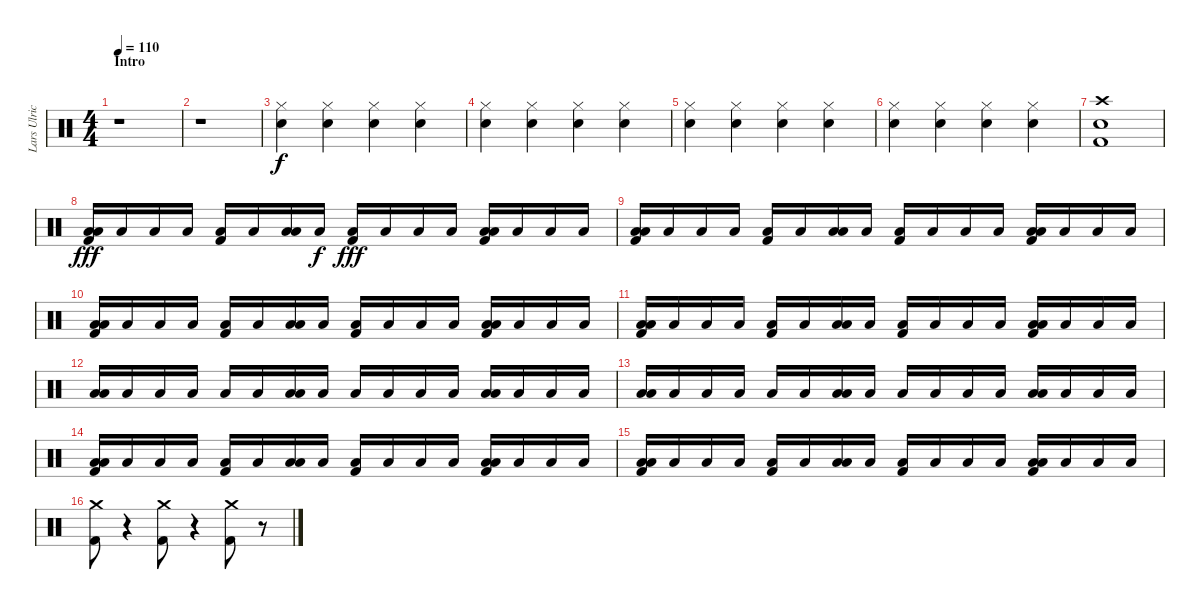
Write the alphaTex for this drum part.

\track ("Lars Ulrich" "Lars Ulric") {instrument percussion}
\staff {score}
\articulation defaults
\ts (4 4)
\section ("" "Intro")
\tempo 110
\clef neutral
\ks c
r.1{dy f} |
r.1 |
("Hi-Hat (closed)" "Electric Snare (hit)").4 ("Hi-Hat (closed)" "Electric Snare (hit)").4 ("Hi-Hat (closed)" "Electric Snare (hit)").4 ("Hi-Hat (closed)" "Electric Snare (hit)").4 |
("Hi-Hat (closed)" "Electric Snare (hit)").4 ("Hi-Hat (closed)" "Electric Snare (hit)").4 ("Hi-Hat (closed)" "Electric Snare (hit)").4 ("Hi-Hat (closed)" "Electric Snare (hit)").4 |
("Hi-Hat (closed)" "Electric Snare (hit)").4 ("Hi-Hat (closed)" "Electric Snare (hit)").4 ("Hi-Hat (closed)" "Electric Snare (hit)").4 ("Hi-Hat (closed)" "Electric Snare (hit)").4 |
("Hi-Hat (closed)" "Electric Snare (hit)").4 ("Hi-Hat (closed)" "Electric Snare (hit)").4 ("Hi-Hat (closed)" "Electric Snare (hit)").4 ("Hi-Hat (closed)" "Electric Snare (hit)").4 |
("Crash high (hit)" "Electric Snare (hit)" "Kick (hit) 2").1 |
("Low Tom (hit)" "Low Floor Tom (hit)" "Kick (hit) 2").16{dy fff} "Low Floor Tom (hit)".16 "Low Floor Tom (hit)".16 "Low Floor Tom (hit)".16 ("Low Floor Tom (hit)" "Kick (hit) 2").16 "Low Floor Tom (hit)".16 ("Low Tom (hit)" "Low Floor Tom (hit)").16 "Low Floor Tom (hit)".16{dy f} ("Low Floor Tom (hit)" "Kick (hit) 2").16{dy fff} "Low Floor Tom (hit)".16 "Low Floor Tom (hit)".16 "Low Floor Tom (hit)".16 ("Low Tom (hit)" "Low Floor Tom (hit)" "Kick (hit) 2").16 "Low Floor Tom (hit)".16 "Low Floor Tom (hit)".16 "Low Floor Tom (hit)".16 |
("Low Tom (hit)" "Low Floor Tom (hit)" "Kick (hit) 2").16 "Low Floor Tom (hit)".16 "Low Floor Tom (hit)".16 "Low Floor Tom (hit)".16 ("Low Floor Tom (hit)" "Kick (hit) 2").16 "Low Floor Tom (hit)".16 ("Low Tom (hit)" "Low Floor Tom (hit)").16 "Low Floor Tom (hit)".16 ("Low Floor Tom (hit)" "Kick (hit) 2").16 "Low Floor Tom (hit)".16 "Low Floor Tom (hit)".16 "Low Floor Tom (hit)".16 ("Low Tom (hit)" "Low Floor Tom (hit)" "Kick (hit) 2").16 "Low Floor Tom (hit)".16 "Low Floor Tom (hit)".16 "Low Floor Tom (hit)".16 |
("Low Tom (hit)" "Low Floor Tom (hit)" "Kick (hit) 2").16 "Low Floor Tom (hit)".16 "Low Floor Tom (hit)".16 "Low Floor Tom (hit)".16 ("Low Floor Tom (hit)" "Kick (hit) 2").16 "Low Floor Tom (hit)".16 ("Low Tom (hit)" "Low Floor Tom (hit)").16 "Low Floor Tom (hit)".16 ("Low Floor Tom (hit)" "Kick (hit) 2").16 "Low Floor Tom (hit)".16 "Low Floor Tom (hit)".16 "Low Floor Tom (hit)".16 ("Low Tom (hit)" "Low Floor Tom (hit)" "Kick (hit) 2").16 "Low Floor Tom (hit)".16 "Low Floor Tom (hit)".16 "Low Floor Tom (hit)".16 |
("Low Tom (hit)" "Low Floor Tom (hit)" "Kick (hit) 2").16 "Low Floor Tom (hit)".16 "Low Floor Tom (hit)".16 "Low Floor Tom (hit)".16 ("Low Floor Tom (hit)" "Kick (hit) 2").16 "Low Floor Tom (hit)".16 ("Low Tom (hit)" "Low Floor Tom (hit)").16 "Low Floor Tom (hit)".16 ("Low Floor Tom (hit)" "Kick (hit) 2").16 "Low Floor Tom (hit)".16 "Low Floor Tom (hit)".16 "Low Floor Tom (hit)".16 ("Low Tom (hit)" "Low Floor Tom (hit)" "Kick (hit) 2").16 "Low Floor Tom (hit)".16 "Low Floor Tom (hit)".16 "Low Floor Tom (hit)".16 |
("Low Tom (hit)" "Low Floor Tom (hit)").16 "Low Floor Tom (hit)".16 "Low Floor Tom (hit)".16 "Low Floor Tom (hit)".16 "Low Floor Tom (hit)".16 "Low Floor Tom (hit)".16 ("Low Tom (hit)" "Low Floor Tom (hit)").16 "Low Floor Tom (hit)".16 "Low Floor Tom (hit)".16 "Low Floor Tom (hit)".16 "Low Floor Tom (hit)".16 "Low Floor Tom (hit)".16 ("Low Tom (hit)" "Low Floor Tom (hit)").16 "Low Floor Tom (hit)".16 "Low Floor Tom (hit)".16 "Low Floor Tom (hit)".16 |
("Low Tom (hit)" "Low Floor Tom (hit)").16 "Low Floor Tom (hit)".16 "Low Floor Tom (hit)".16 "Low Floor Tom (hit)".16 "Low Floor Tom (hit)".16 "Low Floor Tom (hit)".16 ("Low Tom (hit)" "Low Floor Tom (hit)").16 "Low Floor Tom (hit)".16 "Low Floor Tom (hit)".16 "Low Floor Tom (hit)".16 "Low Floor Tom (hit)".16 "Low Floor Tom (hit)".16 ("Low Tom (hit)" "Low Floor Tom (hit)").16 "Low Floor Tom (hit)".16 "Low Floor Tom (hit)".16 "Low Floor Tom (hit)".16 |
("Low Tom (hit)" "Low Floor Tom (hit)" "Kick (hit) 2").16 "Low Floor Tom (hit)".16 "Low Floor Tom (hit)".16 "Low Floor Tom (hit)".16 ("Low Floor Tom (hit)" "Kick (hit) 2").16 "Low Floor Tom (hit)".16 ("Low Tom (hit)" "Low Floor Tom (hit)").16 "Low Floor Tom (hit)".16 ("Low Floor Tom (hit)" "Kick (hit) 2").16 "Low Floor Tom (hit)".16 "Low Floor Tom (hit)".16 "Low Floor Tom (hit)".16 ("Low Tom (hit)" "Low Floor Tom (hit)" "Kick (hit) 2").16 "Low Floor Tom (hit)".16 "Low Floor Tom (hit)".16 "Low Floor Tom (hit)".16 |
("Low Tom (hit)" "Low Floor Tom (hit)" "Kick (hit) 2").16 "Low Floor Tom (hit)".16 "Low Floor Tom (hit)".16 "Low Floor Tom (hit)".16 ("Low Floor Tom (hit)" "Kick (hit) 2").16 "Low Floor Tom (hit)".16 ("Low Tom (hit)" "Low Floor Tom (hit)").16 "Low Floor Tom (hit)".16 ("Low Floor Tom (hit)" "Kick (hit) 2").16 "Low Floor Tom (hit)".16 "Low Floor Tom (hit)".16 "Low Floor Tom (hit)".16 ("Low Tom (hit)" "Low Floor Tom (hit)" "Kick (hit) 2").16 "Low Floor Tom (hit)".16 "Low Floor Tom (hit)".16 "Low Floor Tom (hit)".16 |
("Crash medium (hit)" "Kick (hit) 2").8 r.4 ("Crash medium (hit)" "Kick (hit) 2").8 r.4 ("Crash medium (hit)" "Kick (hit) 2").8 r.8
